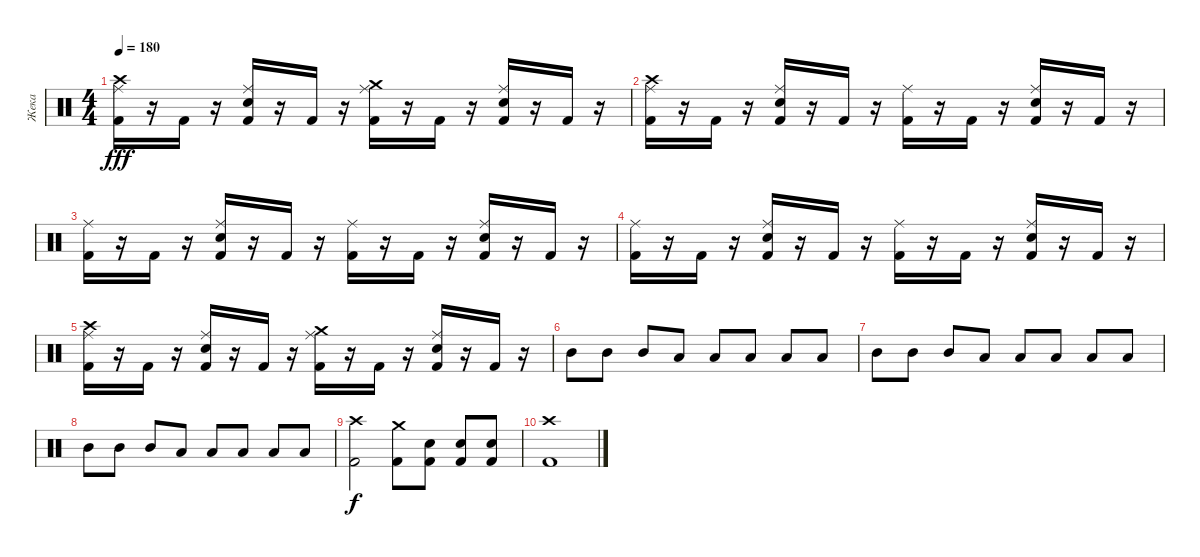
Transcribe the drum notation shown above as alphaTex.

\track ("Жека" "Жека") {instrument percussion}
\staff {score}
\articulation defaults
\ts (4 4)
\tempo 180
\clef neutral
\ks c
("Kick (hit) 2" "Ride (middle)" "Crash high (hit)").16{dy fff} r.16 "Kick (hit) 2".16 r.16 ("Kick (hit) 2" "Snare (hit) 2" "Ride (middle)").16 r.16 "Kick (hit) 2".16 r.16 ("Kick (hit) 2" "Ride (middle)" "Crash medium (hit)").16 r.16 "Kick (hit) 2".16 r.16 ("Kick (hit) 2" "Snare (hit) 2" "Ride (middle)").16 r.16 "Kick (hit) 2".16 r.16 |
("Kick (hit) 2" "Ride (middle)" "Crash high (hit)").16 r.16 "Kick (hit) 2".16 r.16 ("Kick (hit) 2" "Snare (hit) 2" "Ride (middle)").16 r.16 "Kick (hit) 2".16 r.16 ("Kick (hit) 2" "Ride (middle)").16 r.16 "Kick (hit) 2".16 r.16 ("Kick (hit) 2" "Snare (hit) 2" "Ride (middle)").16 r.16 "Kick (hit) 2".16 r.16 |
("Kick (hit) 2" "Ride (middle)").16 r.16 "Kick (hit) 2".16 r.16 ("Kick (hit) 2" "Snare (hit) 2" "Ride (middle)").16 r.16 "Kick (hit) 2".16 r.16 ("Kick (hit) 2" "Ride (middle)").16 r.16 "Kick (hit) 2".16 r.16 ("Kick (hit) 2" "Snare (hit) 2" "Ride (middle)").16 r.16 "Kick (hit) 2".16 r.16 |
("Kick (hit) 2" "Ride (middle)").16 r.16 "Kick (hit) 2".16 r.16 ("Kick (hit) 2" "Snare (hit) 2" "Ride (middle)").16 r.16 "Kick (hit) 2".16 r.16 ("Kick (hit) 2" "Ride (middle)").16 r.16 "Kick (hit) 2".16 r.16 ("Kick (hit) 2" "Snare (hit) 2" "Ride (middle)").16 r.16 "Kick (hit) 2".16 r.16 |
("Kick (hit) 2" "Ride (middle)" "Crash high (hit)").16 r.16 "Kick (hit) 2".16 r.16 ("Kick (hit) 2" "Snare (hit) 2" "Ride (middle)").16 r.16 "Kick (hit) 2".16 r.16 ("Kick (hit) 2" "Ride (middle)" "Crash medium (hit)").16 r.16 "Kick (hit) 2".16 r.16 ("Kick (hit) 2" "Snare (hit) 2" "Ride (middle)").16 r.16 "Kick (hit) 2".16 r.16 |
"Mid Tom (hit)".8 "Mid Tom (hit)".8 "Mid Tom (hit)".8 "Low Tom (hit)".8 "Low Tom (hit)".8 "Low Floor Tom (hit)".8 "Low Floor Tom (hit)".8 "Low Floor Tom (hit)".8 |
"Mid Tom (hit)".8 "Mid Tom (hit)".8 "Mid Tom (hit)".8 "Low Tom (hit)".8 "Low Tom (hit)".8 "Low Floor Tom (hit)".8 "Low Floor Tom (hit)".8 "Low Floor Tom (hit)".8 |
"Mid Tom (hit)".8 "Mid Tom (hit)".8 "Mid Tom (hit)".8 "Low Tom (hit)".8 "Low Tom (hit)".8 "Low Floor Tom (hit)".8 "Low Floor Tom (hit)".8 "Low Floor Tom (hit)".8 |
("Kick (hit) 2" "Crash high (hit)").2{dy f} ("Crash medium (hit)" "Kick (hit) 2").8 ("Snare (hit) 2" "Kick (hit) 2").8 ("Snare (hit) 2" "Kick (hit) 2").8 ("Snare (hit) 2" "Kick (hit) 2").8 |
("Crash high (hit)" "Kick (hit) 2").1
